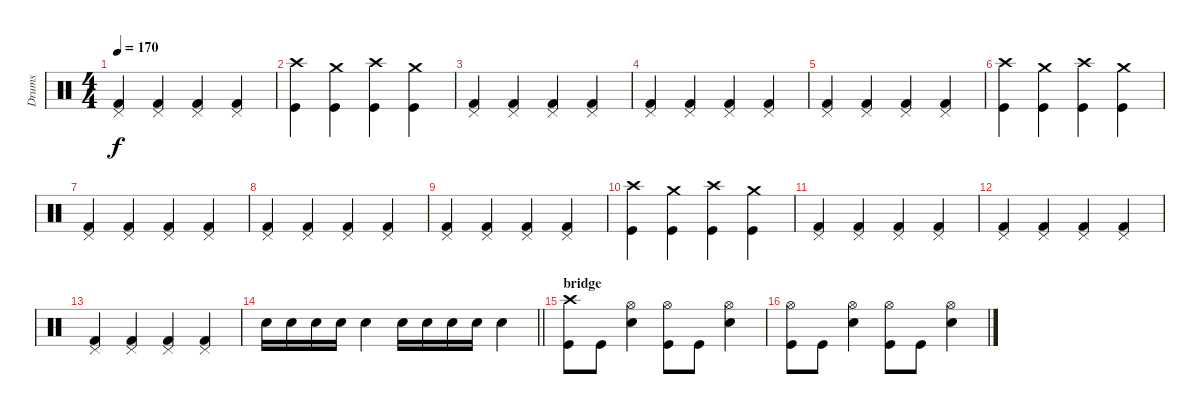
\track ("Drums" "Drums") {instrument percussion}
\staff {score}
\articulation defaults
\ts (4 4)
\tempo 170
\clef neutral
\ks c
("Kick (hit) 2" "Pedal Hi-Hat (hit)").4{dy f} ("Kick (hit) 2" "Pedal Hi-Hat (hit)").4 ("Kick (hit) 2" "Pedal Hi-Hat (hit)").4 ("Kick (hit) 2" "Pedal Hi-Hat (hit)").4 |
("Crash high (hit)" "Kick (hit)").4 ("Crash medium (hit)" "Kick (hit)").4 ("Crash high (hit)" "Kick (hit)").4 ("Crash medium (hit)" "Kick (hit)").4 |
("Kick (hit) 2" "Pedal Hi-Hat (hit)").4 ("Kick (hit) 2" "Pedal Hi-Hat (hit)").4 ("Kick (hit) 2" "Pedal Hi-Hat (hit)").4 ("Kick (hit) 2" "Pedal Hi-Hat (hit)").4 |
("Kick (hit) 2" "Pedal Hi-Hat (hit)").4 ("Kick (hit) 2" "Pedal Hi-Hat (hit)").4 ("Kick (hit) 2" "Pedal Hi-Hat (hit)").4 ("Kick (hit) 2" "Pedal Hi-Hat (hit)").4 |
("Kick (hit) 2" "Pedal Hi-Hat (hit)").4 ("Kick (hit) 2" "Pedal Hi-Hat (hit)").4 ("Kick (hit) 2" "Pedal Hi-Hat (hit)").4 ("Kick (hit) 2" "Pedal Hi-Hat (hit)").4 |
("Crash high (hit)" "Kick (hit)").4 ("Crash medium (hit)" "Kick (hit)").4 ("Crash high (hit)" "Kick (hit)").4 ("Crash medium (hit)" "Kick (hit)").4 |
("Kick (hit) 2" "Pedal Hi-Hat (hit)").4 ("Kick (hit) 2" "Pedal Hi-Hat (hit)").4 ("Kick (hit) 2" "Pedal Hi-Hat (hit)").4 ("Kick (hit) 2" "Pedal Hi-Hat (hit)").4 |
("Kick (hit) 2" "Pedal Hi-Hat (hit)").4 ("Kick (hit) 2" "Pedal Hi-Hat (hit)").4 ("Kick (hit) 2" "Pedal Hi-Hat (hit)").4 ("Kick (hit) 2" "Pedal Hi-Hat (hit)").4 |
("Kick (hit) 2" "Pedal Hi-Hat (hit)").4 ("Kick (hit) 2" "Pedal Hi-Hat (hit)").4 ("Kick (hit) 2" "Pedal Hi-Hat (hit)").4 ("Kick (hit) 2" "Pedal Hi-Hat (hit)").4 |
("Crash high (hit)" "Kick (hit)").4 ("Crash medium (hit)" "Kick (hit)").4 ("Crash high (hit)" "Kick (hit)").4 ("Crash medium (hit)" "Kick (hit)").4 |
("Kick (hit) 2" "Pedal Hi-Hat (hit)").4 ("Kick (hit) 2" "Pedal Hi-Hat (hit)").4 ("Kick (hit) 2" "Pedal Hi-Hat (hit)").4 ("Kick (hit) 2" "Pedal Hi-Hat (hit)").4 |
("Kick (hit) 2" "Pedal Hi-Hat (hit)").4 ("Kick (hit) 2" "Pedal Hi-Hat (hit)").4 ("Kick (hit) 2" "Pedal Hi-Hat (hit)").4 ("Kick (hit) 2" "Pedal Hi-Hat (hit)").4 |
("Kick (hit) 2" "Pedal Hi-Hat (hit)").4 ("Kick (hit) 2" "Pedal Hi-Hat (hit)").4 ("Kick (hit) 2" "Pedal Hi-Hat (hit)").4 ("Kick (hit) 2" "Pedal Hi-Hat (hit)").4 |
\barLineRight lightlight "Snare (hit) 2".16 "Snare (hit) 2".16 "Snare (hit) 2".16 "Snare (hit) 2".16 "Snare (hit) 2".4 "Snare (hit) 2".16 "Snare (hit) 2".16 "Snare (hit) 2".16 "Snare (hit) 2".16 "Snare (hit) 2".4
|
\section ("" "bridge")
("Crash high (hit)" "Kick (hit)").8 "Kick (hit)".8 ("Snare (hit) 2" "Hi-Hat (open)").4 ("Hi-Hat (open)" "Kick (hit)").8 "Kick (hit)".8 ("Snare (hit) 2" "Hi-Hat (open)").4 |
("Hi-Hat (open)" "Kick (hit)").8 "Kick (hit)".8 ("Snare (hit) 2" "Hi-Hat (open)").4 ("Hi-Hat (open)" "Kick (hit)").8 "Kick (hit)".8 ("Snare (hit) 2" "Hi-Hat (open)").4
